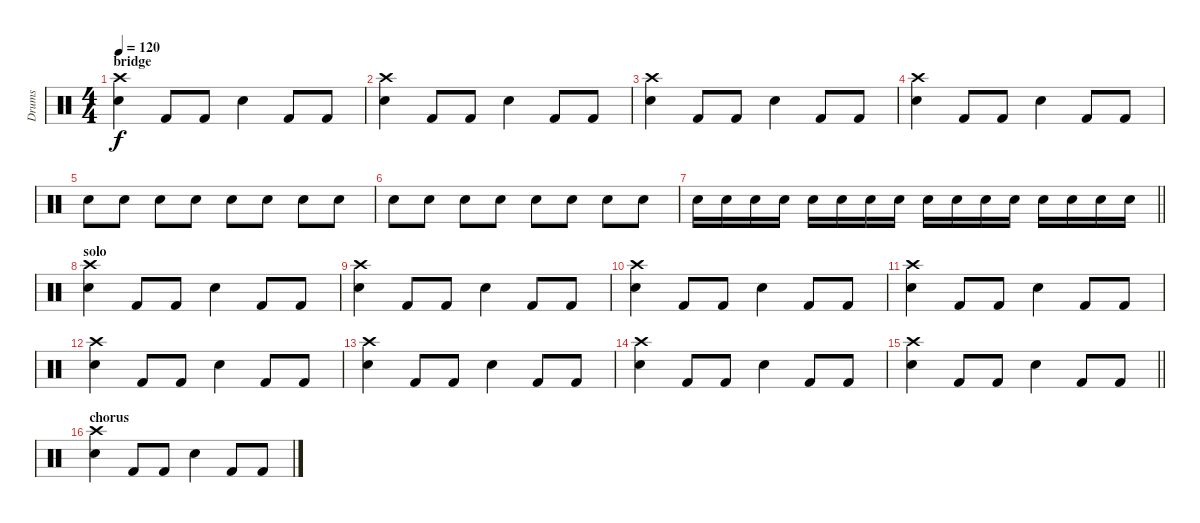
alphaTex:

\track ("Drums" "Drums") {instrument percussion}
\staff {score}
\articulation defaults
\ts (4 4)
\section ("" "bridge")
\tempo 120
\clef neutral
\ks c
("Electric Snare (hit)" "Crash high (hit)").4{dy f} "Kick (hit) 2".8 "Kick (hit) 2".8 "Electric Snare (hit)".4 "Kick (hit) 2".8 "Kick (hit) 2".8 |
("Electric Snare (hit)" "Crash high (hit)").4 "Kick (hit) 2".8 "Kick (hit) 2".8 "Electric Snare (hit)".4 "Kick (hit) 2".8 "Kick (hit) 2".8 |
("Electric Snare (hit)" "Crash high (hit)").4 "Kick (hit) 2".8 "Kick (hit) 2".8 "Electric Snare (hit)".4 "Kick (hit) 2".8 "Kick (hit) 2".8 |
("Electric Snare (hit)" "Crash high (hit)").4 "Kick (hit) 2".8 "Kick (hit) 2".8 "Electric Snare (hit)".4 "Kick (hit) 2".8 "Kick (hit) 2".8 |
"Electric Snare (hit)".8 "Electric Snare (hit)".8 "Electric Snare (hit)".8 "Electric Snare (hit)".8 "Electric Snare (hit)".8 "Electric Snare (hit)".8 "Electric Snare (hit)".8 "Electric Snare (hit)".8 |
"Electric Snare (hit)".8 "Electric Snare (hit)".8 "Electric Snare (hit)".8 "Electric Snare (hit)".8 "Electric Snare (hit)".8 "Electric Snare (hit)".8 "Electric Snare (hit)".8 "Electric Snare (hit)".8 |
\barLineRight lightlight "Electric Snare (hit)".16 "Electric Snare (hit)".16 "Electric Snare (hit)".16 "Electric Snare (hit)".16 "Electric Snare (hit)".16 "Electric Snare (hit)".16 "Electric Snare (hit)".16 "Electric Snare (hit)".16 "Electric Snare (hit)".16 "Electric Snare (hit)".16 "Electric Snare (hit)".16 "Electric Snare (hit)".16 "Electric Snare (hit)".16 "Electric Snare (hit)".16 "Electric Snare (hit)".16 "Electric Snare (hit)".16
|
\section ("" "solo")
("Electric Snare (hit)" "Crash high (hit)").4 "Kick (hit) 2".8 "Kick (hit) 2".8 "Electric Snare (hit)".4 "Kick (hit) 2".8 "Kick (hit) 2".8 |
("Electric Snare (hit)" "Crash high (hit)").4 "Kick (hit) 2".8 "Kick (hit) 2".8 "Electric Snare (hit)".4 "Kick (hit) 2".8 "Kick (hit) 2".8 |
("Electric Snare (hit)" "Crash high (hit)").4 "Kick (hit) 2".8 "Kick (hit) 2".8 "Electric Snare (hit)".4 "Kick (hit) 2".8 "Kick (hit) 2".8 |
("Electric Snare (hit)" "Crash high (hit)").4 "Kick (hit) 2".8 "Kick (hit) 2".8 "Electric Snare (hit)".4 "Kick (hit) 2".8 "Kick (hit) 2".8 |
("Electric Snare (hit)" "Crash high (hit)").4 "Kick (hit) 2".8 "Kick (hit) 2".8 "Electric Snare (hit)".4 "Kick (hit) 2".8 "Kick (hit) 2".8 |
("Electric Snare (hit)" "Crash high (hit)").4 "Kick (hit) 2".8 "Kick (hit) 2".8 "Electric Snare (hit)".4 "Kick (hit) 2".8 "Kick (hit) 2".8 |
("Electric Snare (hit)" "Crash high (hit)").4 "Kick (hit) 2".8 "Kick (hit) 2".8 "Electric Snare (hit)".4 "Kick (hit) 2".8 "Kick (hit) 2".8 |
\barLineRight lightlight
("Electric Snare (hit)" "Crash high (hit)").4 "Kick (hit) 2".8 "Kick (hit) 2".8 "Electric Snare (hit)".4 "Kick (hit) 2".8 "Kick (hit) 2".8 |
\section ("" "chorus")
("Electric Snare (hit)" "Crash high (hit)").4 "Kick (hit) 2".8 "Kick (hit) 2".8 "Electric Snare (hit)".4 "Kick (hit) 2".8 "Kick (hit) 2".8
